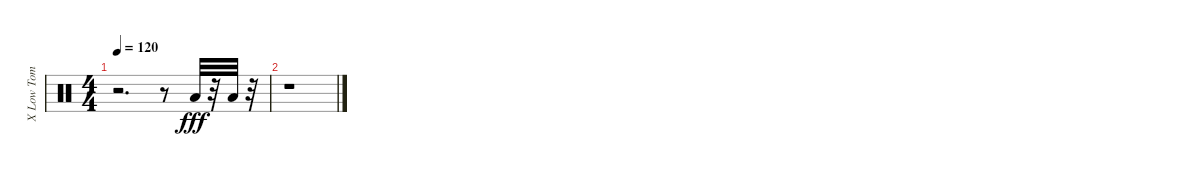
\track ("X Low Tom           " "X Low Tom ") {instrument percussion}
\staff {score}
\articulation defaults
\ts (4 4)
\tempo 120
\clef neutral
\ks c
r.2{d dy fff} r.8 "Low Floor Tom (hit)".32 r.32 "Low Floor Tom (hit)".32 r.32 |
r.1
